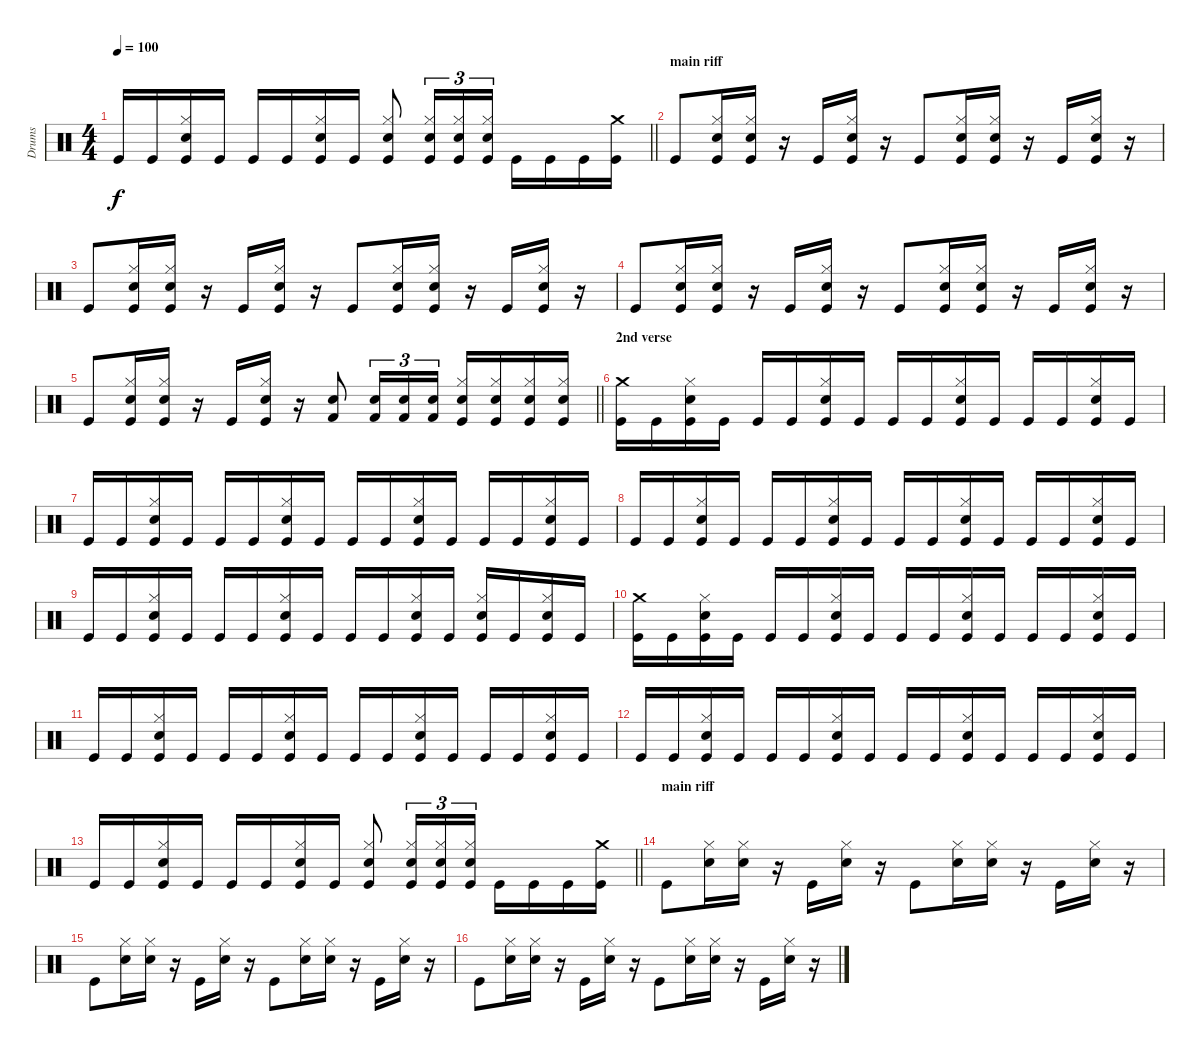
\track ("Drums" "Drums") {instrument percussion}
\staff {score}
\articulation defaults
\ts (4 4)
\tempo 100
\clef neutral
\barLineRight lightlight
\ks c "Kick (hit)".16{dy f} "Kick (hit)".16
("Hi-Hat (closed)" "Snare (hit) 2" "Kick (hit)").16 "Kick (hit)".16 "Kick (hit)".16 "Kick (hit)".16 ("Hi-Hat (closed)" "Snare (hit) 2" "Kick (hit)").16 "Kick (hit)".16 ("Hi-Hat (closed)" "Snare (hit) 2" "Kick (hit)").8 ("Hi-Hat (closed)" "Snare (hit) 2" "Kick (hit)").16{tu (3 2)} ("Hi-Hat (closed)" "Snare (hit) 2" "Kick (hit)").16{tu (3 2)} ("Hi-Hat (closed)" "Snare (hit) 2" "Kick (hit)").16{tu (3 2)} "Kick (hit)".16 "Kick (hit)".16 "Kick (hit)".16 ("Crash medium (hit)" "Kick (hit)").16 |
\section ("" "main riff")
"Kick (hit)".8 ("Hi-Hat (closed)" "Snare (hit) 2" "Kick (hit)").16 ("Hi-Hat (closed)" "Snare (hit) 2" "Kick (hit)").16 r.16 "Kick (hit)".16 ("Hi-Hat (closed)" "Snare (hit) 2" "Kick (hit)").16 r.16 "Kick (hit)".8 ("Hi-Hat (closed)" "Snare (hit) 2" "Kick (hit)").16 ("Hi-Hat (closed)" "Snare (hit) 2" "Kick (hit)").16 r.16 "Kick (hit)".16 ("Hi-Hat (closed)" "Snare (hit) 2" "Kick (hit)").16 r.16 |
"Kick (hit)".8 ("Hi-Hat (closed)" "Snare (hit) 2" "Kick (hit)").16 ("Hi-Hat (closed)" "Snare (hit) 2" "Kick (hit)").16 r.16 "Kick (hit)".16 ("Hi-Hat (closed)" "Snare (hit) 2" "Kick (hit)").16 r.16 "Kick (hit)".8 ("Hi-Hat (closed)" "Snare (hit) 2" "Kick (hit)").16 ("Hi-Hat (closed)" "Snare (hit) 2" "Kick (hit)").16 r.16 "Kick (hit)".16 ("Hi-Hat (closed)" "Snare (hit) 2" "Kick (hit)").16 r.16 |
"Kick (hit)".8 ("Hi-Hat (closed)" "Snare (hit) 2" "Kick (hit)").16 ("Hi-Hat (closed)" "Snare (hit) 2" "Kick (hit)").16 r.16 "Kick (hit)".16 ("Hi-Hat (closed)" "Snare (hit) 2" "Kick (hit)").16 r.16 "Kick (hit)".8 ("Hi-Hat (closed)" "Snare (hit) 2" "Kick (hit)").16 ("Hi-Hat (closed)" "Snare (hit) 2" "Kick (hit)").16 r.16 "Kick (hit)".16 ("Hi-Hat (closed)" "Snare (hit) 2" "Kick (hit)").16 r.16 |
\barLineRight lightlight "Kick (hit)".8
("Hi-Hat (closed)" "Snare (hit) 2" "Kick (hit)").16 ("Hi-Hat (closed)" "Snare (hit) 2" "Kick (hit)").16 r.16 "Kick (hit)".16 ("Hi-Hat (closed)" "Snare (hit) 2" "Kick (hit)").16 r.16 ("Snare (hit) 2" "Kick (hit) 2").8 ("Snare (hit) 2" "Kick (hit) 2").16{tu (3 2)} ("Snare (hit) 2" "Kick (hit) 2").16{tu (3 2)} ("Snare (hit) 2" "Kick (hit) 2").16{tu (3 2)} ("Hi-Hat (closed)" "Snare (hit) 2" "Kick (hit)").16 ("Hi-Hat (closed)" "Snare (hit) 2" "Kick (hit)").16 ("Hi-Hat (closed)" "Snare (hit) 2" "Kick (hit)").16 ("Hi-Hat (closed)" "Snare (hit) 2" "Kick (hit)").16 |
\section ("" "2nd verse")
("Crash medium (hit)" "Kick (hit)").16 "Kick (hit)".16 ("Hi-Hat (closed)" "Snare (hit) 2" "Kick (hit)").16 "Kick (hit)".16 "Kick (hit)".16 "Kick (hit)".16 ("Hi-Hat (closed)" "Snare (hit) 2" "Kick (hit)").16 "Kick (hit)".16 "Kick (hit)".16 "Kick (hit)".16 ("Hi-Hat (closed)" "Snare (hit) 2" "Kick (hit)").16 "Kick (hit)".16 "Kick (hit)".16 "Kick (hit)".16 ("Hi-Hat (closed)" "Snare (hit) 2" "Kick (hit)").16 "Kick (hit)".16 |
"Kick (hit)".16 "Kick (hit)".16 ("Hi-Hat (closed)" "Snare (hit) 2" "Kick (hit)").16 "Kick (hit)".16 "Kick (hit)".16 "Kick (hit)".16 ("Hi-Hat (closed)" "Snare (hit) 2" "Kick (hit)").16 "Kick (hit)".16 "Kick (hit)".16 "Kick (hit)".16 ("Hi-Hat (closed)" "Snare (hit) 2" "Kick (hit)").16 "Kick (hit)".16 "Kick (hit)".16 "Kick (hit)".16 ("Hi-Hat (closed)" "Snare (hit) 2" "Kick (hit)").16 "Kick (hit)".16 |
"Kick (hit)".16 "Kick (hit)".16 ("Hi-Hat (closed)" "Snare (hit) 2" "Kick (hit)").16 "Kick (hit)".16 "Kick (hit)".16 "Kick (hit)".16 ("Hi-Hat (closed)" "Snare (hit) 2" "Kick (hit)").16 "Kick (hit)".16 "Kick (hit)".16 "Kick (hit)".16 ("Hi-Hat (closed)" "Snare (hit) 2" "Kick (hit)").16 "Kick (hit)".16 "Kick (hit)".16 "Kick (hit)".16 ("Hi-Hat (closed)" "Snare (hit) 2" "Kick (hit)").16 "Kick (hit)".16 |
"Kick (hit)".16 "Kick (hit)".16 ("Hi-Hat (closed)" "Snare (hit) 2" "Kick (hit)").16 "Kick (hit)".16 "Kick (hit)".16 "Kick (hit)".16 ("Hi-Hat (closed)" "Snare (hit) 2" "Kick (hit)").16 "Kick (hit)".16 "Kick (hit)".16 "Kick (hit)".16 ("Hi-Hat (closed)" "Snare (hit) 2" "Kick (hit)").16 "Kick (hit)".16 ("Hi-Hat (closed)" "Snare (hit) 2" "Kick (hit)").16 "Kick (hit)".16 ("Hi-Hat (closed)" "Snare (hit) 2" "Kick (hit)").16 "Kick (hit)".16 |
("Crash medium (hit)" "Kick (hit)").16 "Kick (hit)".16 ("Hi-Hat (closed)" "Snare (hit) 2" "Kick (hit)").16 "Kick (hit)".16 "Kick (hit)".16 "Kick (hit)".16 ("Hi-Hat (closed)" "Snare (hit) 2" "Kick (hit)").16 "Kick (hit)".16 "Kick (hit)".16 "Kick (hit)".16 ("Hi-Hat (closed)" "Snare (hit) 2" "Kick (hit)").16 "Kick (hit)".16 "Kick (hit)".16 "Kick (hit)".16 ("Hi-Hat (closed)" "Snare (hit) 2" "Kick (hit)").16 "Kick (hit)".16 |
"Kick (hit)".16 "Kick (hit)".16 ("Hi-Hat (closed)" "Snare (hit) 2" "Kick (hit)").16 "Kick (hit)".16 "Kick (hit)".16 "Kick (hit)".16 ("Hi-Hat (closed)" "Snare (hit) 2" "Kick (hit)").16 "Kick (hit)".16 "Kick (hit)".16 "Kick (hit)".16 ("Hi-Hat (closed)" "Snare (hit) 2" "Kick (hit)").16 "Kick (hit)".16 "Kick (hit)".16 "Kick (hit)".16 ("Hi-Hat (closed)" "Snare (hit) 2" "Kick (hit)").16 "Kick (hit)".16 |
"Kick (hit)".16 "Kick (hit)".16 ("Hi-Hat (closed)" "Snare (hit) 2" "Kick (hit)").16 "Kick (hit)".16 "Kick (hit)".16 "Kick (hit)".16 ("Hi-Hat (closed)" "Snare (hit) 2" "Kick (hit)").16 "Kick (hit)".16 "Kick (hit)".16 "Kick (hit)".16 ("Hi-Hat (closed)" "Snare (hit) 2" "Kick (hit)").16 "Kick (hit)".16 "Kick (hit)".16 "Kick (hit)".16 ("Hi-Hat (closed)" "Snare (hit) 2" "Kick (hit)").16 "Kick (hit)".16 |
\barLineRight lightlight "Kick (hit)".16 "Kick (hit)".16
("Hi-Hat (closed)" "Snare (hit) 2" "Kick (hit)").16 "Kick (hit)".16 "Kick (hit)".16 "Kick (hit)".16 ("Hi-Hat (closed)" "Snare (hit) 2" "Kick (hit)").16 "Kick (hit)".16 ("Hi-Hat (closed)" "Snare (hit) 2" "Kick (hit)").8 ("Hi-Hat (closed)" "Snare (hit) 2" "Kick (hit)").16{tu (3 2)} ("Hi-Hat (closed)" "Snare (hit) 2" "Kick (hit)").16{tu (3 2)} ("Hi-Hat (closed)" "Snare (hit) 2" "Kick (hit)").16{tu (3 2)} "Kick (hit)".16 "Kick (hit)".16 "Kick (hit)".16 ("Crash medium (hit)" "Kick (hit)").16 |
\section ("" "main riff")
"Kick (hit)".8 ("Hi-Hat (closed)" "Snare (hit) 2").16 ("Hi-Hat (closed)" "Snare (hit) 2").16 r.16 "Kick (hit)".16 ("Hi-Hat (closed)" "Snare (hit) 2").16 r.16 "Kick (hit)".8 ("Hi-Hat (closed)" "Snare (hit) 2").16 ("Hi-Hat (closed)" "Snare (hit) 2").16 r.16 "Kick (hit)".16 ("Hi-Hat (closed)" "Snare (hit) 2").16 r.16 |
"Kick (hit)".8 ("Hi-Hat (closed)" "Snare (hit) 2").16 ("Hi-Hat (closed)" "Snare (hit) 2").16 r.16 "Kick (hit)".16 ("Hi-Hat (closed)" "Snare (hit) 2").16 r.16 "Kick (hit)".8 ("Hi-Hat (closed)" "Snare (hit) 2").16 ("Hi-Hat (closed)" "Snare (hit) 2").16 r.16 "Kick (hit)".16 ("Hi-Hat (closed)" "Snare (hit) 2").16 r.16 |
"Kick (hit)".8 ("Hi-Hat (closed)" "Snare (hit) 2").16 ("Hi-Hat (closed)" "Snare (hit) 2").16 r.16 "Kick (hit)".16 ("Hi-Hat (closed)" "Snare (hit) 2").16 r.16 "Kick (hit)".8 ("Hi-Hat (closed)" "Snare (hit) 2").16 ("Hi-Hat (closed)" "Snare (hit) 2").16 r.16 "Kick (hit)".16 ("Hi-Hat (closed)" "Snare (hit) 2").16 r.16
